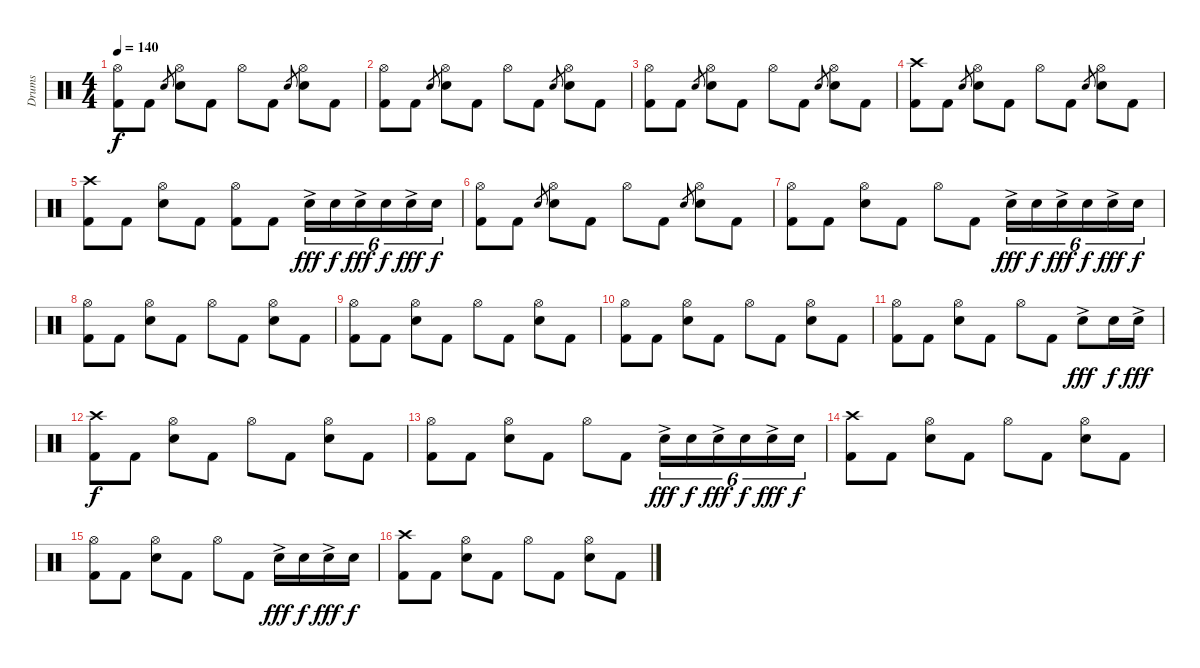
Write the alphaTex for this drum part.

\track ("Drums" "Drums") {instrument percussion}
\staff {score}
\articulation defaults
\ts (4 4)
\tempo 140
\clef neutral
\ks c
("Hi-Hat (open)" "Kick (hit) 2").8{dy f} "Kick (hit) 2".8 "Snare (hit) 2".8{gr} ("Hi-Hat (open)" "Snare (hit) 2").8 "Kick (hit) 2".8 "Hi-Hat (open)".8 "Kick (hit) 2".8 "Snare (hit) 2".8{gr} ("Hi-Hat (open)" "Snare (hit) 2").8 "Kick (hit) 2".8 |
("Hi-Hat (open)" "Kick (hit) 2").8 "Kick (hit) 2".8 "Snare (hit) 2".8{gr} ("Hi-Hat (open)" "Snare (hit) 2").8 "Kick (hit) 2".8 "Hi-Hat (open)".8 "Kick (hit) 2".8 "Snare (hit) 2".8{gr} ("Hi-Hat (open)" "Snare (hit) 2").8 "Kick (hit) 2".8 |
("Hi-Hat (open)" "Kick (hit) 2").8 "Kick (hit) 2".8 "Snare (hit) 2".8{gr} ("Hi-Hat (open)" "Snare (hit) 2").8 "Kick (hit) 2".8 "Hi-Hat (open)".8 "Kick (hit) 2".8 "Snare (hit) 2".8{gr} ("Hi-Hat (open)" "Snare (hit) 2").8 "Kick (hit) 2".8 |
("Crash high (hit)" "Kick (hit) 2").8 "Kick (hit) 2".8 "Snare (hit) 2".8{gr} ("Hi-Hat (open)" "Snare (hit) 2").8 "Kick (hit) 2".8 "Hi-Hat (open)".8 "Kick (hit) 2".8 "Snare (hit) 2".8{gr} ("Hi-Hat (open)" "Snare (hit) 2").8 "Kick (hit) 2".8 |
("Crash high (hit)" "Kick (hit) 2").8 "Kick (hit) 2".8 ("Hi-Hat (open)" "Snare (hit) 2").8 "Kick (hit) 2".8 ("Hi-Hat (open)" "Kick (hit) 2").8 "Kick (hit) 2".8 "Snare (hit) 2"{ac}.16{tu (6 4) dy fff} "Snare (hit) 2".16{tu (6 4) dy f} "Snare (hit) 2"{ac}.16{tu (6 4) dy fff} "Snare (hit) 2".16{tu (6 4) dy f} "Snare (hit) 2"{ac}.16{tu (6 4) dy fff} "Snare (hit) 2".16{tu (6 4) dy f} |
("Hi-Hat (open)" "Kick (hit) 2").8 "Kick (hit) 2".8 "Snare (hit) 2".8{gr} ("Hi-Hat (open)" "Snare (hit) 2").8 "Kick (hit) 2".8 "Hi-Hat (open)".8 "Kick (hit) 2".8 "Snare (hit) 2".8{gr} ("Hi-Hat (open)" "Snare (hit) 2").8 "Kick (hit) 2".8 |
("Hi-Hat (open)" "Kick (hit) 2").8 "Kick (hit) 2".8 ("Hi-Hat (open)" "Snare (hit) 2").8 "Kick (hit) 2".8 "Hi-Hat (open)".8 "Kick (hit) 2".8 "Snare (hit) 2"{ac}.16{tu (6 4) dy fff} "Snare (hit) 2".16{tu (6 4) dy f} "Snare (hit) 2"{ac}.16{tu (6 4) dy fff} "Snare (hit) 2".16{tu (6 4) dy f} "Snare (hit) 2"{ac}.16{tu (6 4) dy fff} "Snare (hit) 2".16{tu (6 4) dy f} |
("Hi-Hat (open)" "Kick (hit) 2").8 "Kick (hit) 2".8 ("Hi-Hat (open)" "Snare (hit) 2").8 "Kick (hit) 2".8 "Hi-Hat (open)".8 "Kick (hit) 2".8 ("Hi-Hat (open)" "Snare (hit) 2").8 "Kick (hit) 2".8 |
("Hi-Hat (open)" "Kick (hit) 2").8 "Kick (hit) 2".8 ("Hi-Hat (open)" "Snare (hit) 2").8 "Kick (hit) 2".8 "Hi-Hat (open)".8 "Kick (hit) 2".8 ("Hi-Hat (open)" "Snare (hit) 2").8 "Kick (hit) 2".8 |
("Hi-Hat (open)" "Kick (hit) 2").8 "Kick (hit) 2".8 ("Hi-Hat (open)" "Snare (hit) 2").8 "Kick (hit) 2".8 "Hi-Hat (open)".8 "Kick (hit) 2".8 ("Hi-Hat (open)" "Snare (hit) 2").8 "Kick (hit) 2".8 |
("Hi-Hat (open)" "Kick (hit) 2").8 "Kick (hit) 2".8 ("Hi-Hat (open)" "Snare (hit) 2").8 "Kick (hit) 2".8 "Hi-Hat (open)".8 "Kick (hit) 2".8 "Snare (hit) 2"{ac}.8{dy fff} "Snare (hit) 2".16{dy f} "Snare (hit) 2"{ac}.16{dy fff} |
("Crash high (hit)" "Kick (hit) 2").8{dy f} "Kick (hit) 2".8 ("Hi-Hat (open)" "Snare (hit) 2").8 "Kick (hit) 2".8 "Hi-Hat (open)".8 "Kick (hit) 2".8 ("Hi-Hat (open)" "Snare (hit) 2").8 "Kick (hit) 2".8 |
("Hi-Hat (open)" "Kick (hit) 2").8 "Kick (hit) 2".8 ("Hi-Hat (open)" "Snare (hit) 2").8 "Kick (hit) 2".8 "Hi-Hat (open)".8 "Kick (hit) 2".8 "Snare (hit) 2"{ac}.16{tu (6 4) dy fff} "Snare (hit) 2".16{tu (6 4) dy f} "Snare (hit) 2"{ac}.16{tu (6 4) dy fff} "Snare (hit) 2".16{tu (6 4) dy f} "Snare (hit) 2"{ac}.16{tu (6 4) dy fff} "Snare (hit) 2".16{tu (6 4) dy f} |
("Crash high (hit)" "Kick (hit) 2").8 "Kick (hit) 2".8 ("Hi-Hat (open)" "Snare (hit) 2").8 "Kick (hit) 2".8 "Hi-Hat (open)".8 "Kick (hit) 2".8 ("Hi-Hat (open)" "Snare (hit) 2").8 "Kick (hit) 2".8 |
("Hi-Hat (open)" "Kick (hit) 2").8 "Kick (hit) 2".8 ("Hi-Hat (open)" "Snare (hit) 2").8 "Kick (hit) 2".8 "Hi-Hat (open)".8 "Kick (hit) 2".8 "Snare (hit) 2"{ac}.16{dy fff} "Snare (hit) 2".16{dy f} "Snare (hit) 2"{ac}.16{dy fff} "Snare (hit) 2".16{dy f} |
("Crash high (hit)" "Kick (hit) 2").8 "Kick (hit) 2".8 ("Hi-Hat (open)" "Snare (hit) 2").8 "Kick (hit) 2".8 "Hi-Hat (open)".8 "Kick (hit) 2".8 ("Hi-Hat (open)" "Snare (hit) 2").8 "Kick (hit) 2".8
